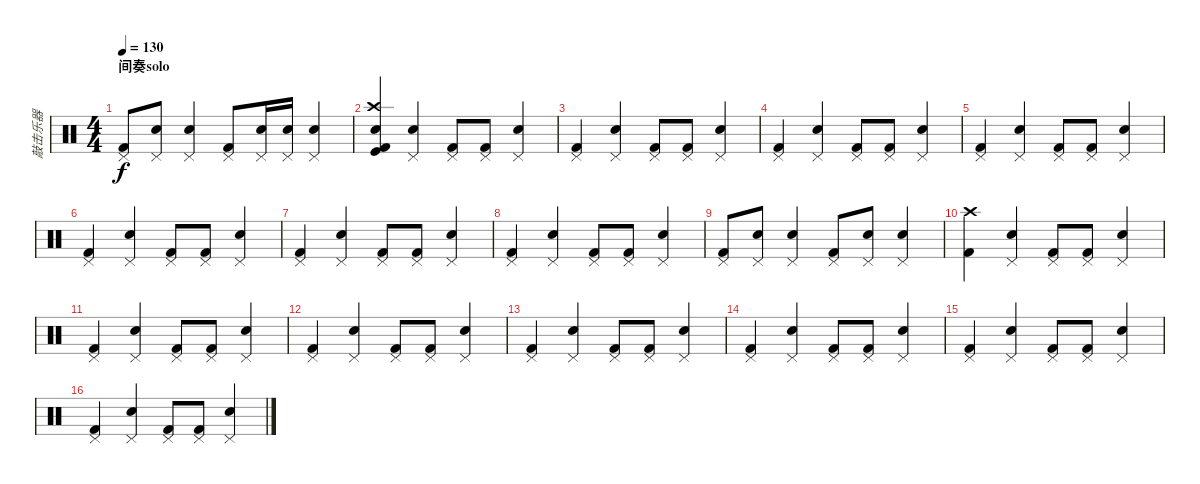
\track ("敲击乐器" "敲击乐器") {instrument percussion}
\staff {score}
\articulation defaults
\ts (4 4)
\section ("" "间奏solo")
\tempo 130
\clef neutral
\ks c
("Kick (hit) 2" "Pedal Hi-Hat (hit)").8{dy f} ("Snare (hit) 2" "Pedal Hi-Hat (hit)").8 ("Snare (hit) 2" "Pedal Hi-Hat (hit)").4 ("Kick (hit) 2" "Pedal Hi-Hat (hit)").8 ("Snare (hit) 2" "Pedal Hi-Hat (hit)").16 ("Snare (hit) 2" "Pedal Hi-Hat (hit)").16 ("Snare (hit) 2" "Pedal Hi-Hat (hit)").4 |
("Kick (hit) 2" "Crash high (hit)" "Kick (hit)" "Metronome (bell)").4 ("Snare (hit) 2" "Pedal Hi-Hat (hit)").4 ("Kick (hit) 2" "Pedal Hi-Hat (hit)").8 ("Kick (hit) 2" "Pedal Hi-Hat (hit)").8 ("Snare (hit) 2" "Pedal Hi-Hat (hit)").4 |
("Kick (hit) 2" "Pedal Hi-Hat (hit)").4 ("Snare (hit) 2" "Pedal Hi-Hat (hit)").4 ("Kick (hit) 2" "Pedal Hi-Hat (hit)").8 ("Kick (hit) 2" "Pedal Hi-Hat (hit)").8 ("Snare (hit) 2" "Pedal Hi-Hat (hit)").4 |
("Kick (hit) 2" "Pedal Hi-Hat (hit)").4 ("Snare (hit) 2" "Pedal Hi-Hat (hit)").4 ("Kick (hit) 2" "Pedal Hi-Hat (hit)").8 ("Kick (hit) 2" "Pedal Hi-Hat (hit)").8 ("Snare (hit) 2" "Pedal Hi-Hat (hit)").4 |
("Kick (hit) 2" "Pedal Hi-Hat (hit)").4 ("Snare (hit) 2" "Pedal Hi-Hat (hit)").4 ("Kick (hit) 2" "Pedal Hi-Hat (hit)").8 ("Kick (hit) 2" "Pedal Hi-Hat (hit)").8 ("Snare (hit) 2" "Pedal Hi-Hat (hit)").4 |
("Kick (hit) 2" "Pedal Hi-Hat (hit)").4 ("Snare (hit) 2" "Pedal Hi-Hat (hit)").4 ("Kick (hit) 2" "Pedal Hi-Hat (hit)").8 ("Kick (hit) 2" "Pedal Hi-Hat (hit)").8 ("Snare (hit) 2" "Pedal Hi-Hat (hit)").4 |
("Kick (hit) 2" "Pedal Hi-Hat (hit)").4 ("Snare (hit) 2" "Pedal Hi-Hat (hit)").4 ("Kick (hit) 2" "Pedal Hi-Hat (hit)").8 ("Kick (hit) 2" "Pedal Hi-Hat (hit)").8 ("Snare (hit) 2" "Pedal Hi-Hat (hit)").4 |
("Kick (hit) 2" "Pedal Hi-Hat (hit)").4 ("Snare (hit) 2" "Pedal Hi-Hat (hit)").4 ("Kick (hit) 2" "Pedal Hi-Hat (hit)").8 ("Kick (hit) 2" "Pedal Hi-Hat (hit)").8 ("Snare (hit) 2" "Pedal Hi-Hat (hit)").4 |
("Kick (hit) 2" "Pedal Hi-Hat (hit)").8 ("Snare (hit) 2" "Pedal Hi-Hat (hit)").8 ("Snare (hit) 2" "Pedal Hi-Hat (hit)").4 ("Kick (hit) 2" "Pedal Hi-Hat (hit)").8 ("Snare (hit) 2" "Pedal Hi-Hat (hit)").8 ("Snare (hit) 2" "Pedal Hi-Hat (hit)").4 |
("Kick (hit) 2" "Crash high (hit)").4 ("Snare (hit) 2" "Pedal Hi-Hat (hit)").4 ("Kick (hit) 2" "Pedal Hi-Hat (hit)").8 ("Kick (hit) 2" "Pedal Hi-Hat (hit)").8 ("Snare (hit) 2" "Pedal Hi-Hat (hit)").4 |
("Kick (hit) 2" "Pedal Hi-Hat (hit)").4 ("Snare (hit) 2" "Pedal Hi-Hat (hit)").4 ("Kick (hit) 2" "Pedal Hi-Hat (hit)").8 ("Kick (hit) 2" "Pedal Hi-Hat (hit)").8 ("Snare (hit) 2" "Pedal Hi-Hat (hit)").4 |
("Kick (hit) 2" "Pedal Hi-Hat (hit)").4 ("Snare (hit) 2" "Pedal Hi-Hat (hit)").4 ("Kick (hit) 2" "Pedal Hi-Hat (hit)").8 ("Kick (hit) 2" "Pedal Hi-Hat (hit)").8 ("Snare (hit) 2" "Pedal Hi-Hat (hit)").4 |
("Kick (hit) 2" "Pedal Hi-Hat (hit)").4 ("Snare (hit) 2" "Pedal Hi-Hat (hit)").4 ("Kick (hit) 2" "Pedal Hi-Hat (hit)").8 ("Kick (hit) 2" "Pedal Hi-Hat (hit)").8 ("Snare (hit) 2" "Pedal Hi-Hat (hit)").4 |
("Kick (hit) 2" "Pedal Hi-Hat (hit)").4 ("Snare (hit) 2" "Pedal Hi-Hat (hit)").4 ("Kick (hit) 2" "Pedal Hi-Hat (hit)").8 ("Kick (hit) 2" "Pedal Hi-Hat (hit)").8 ("Snare (hit) 2" "Pedal Hi-Hat (hit)").4 |
("Kick (hit) 2" "Pedal Hi-Hat (hit)").4 ("Snare (hit) 2" "Pedal Hi-Hat (hit)").4 ("Kick (hit) 2" "Pedal Hi-Hat (hit)").8 ("Kick (hit) 2" "Pedal Hi-Hat (hit)").8 ("Snare (hit) 2" "Pedal Hi-Hat (hit)").4 |
("Kick (hit) 2" "Pedal Hi-Hat (hit)").4 ("Snare (hit) 2" "Pedal Hi-Hat (hit)").4 ("Kick (hit) 2" "Pedal Hi-Hat (hit)").8 ("Kick (hit) 2" "Pedal Hi-Hat (hit)").8 ("Snare (hit) 2" "Pedal Hi-Hat (hit)").4
